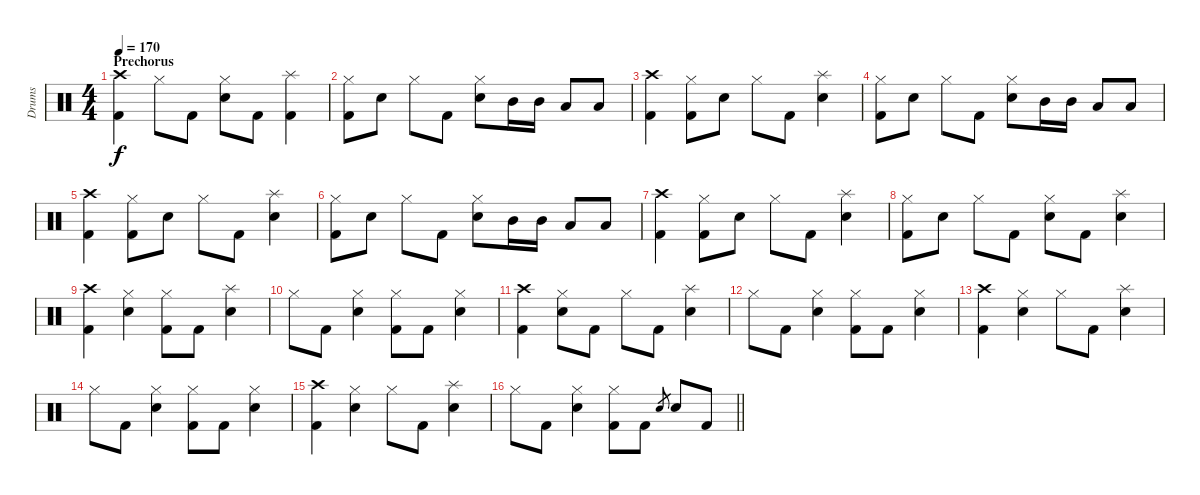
\track ("Drums" "Drums") {instrument percussion}
\staff {score}
\articulation defaults
\ts (4 4)
\section ("" "Prechorus")
\tempo 170
\clef neutral
\ks c
("Kick (hit) 2" "Crash high (hit)").4{dy f} "Hi-Hat (closed)".8 "Kick (hit) 2".8 ("Hi-Hat (closed)" "Electric Snare (hit)").8 "Kick (hit) 2".8 ("Kick (hit) 2" "Splash (hit)").4 |
("Kick (hit) 2" "Hi-Hat (closed)").8 "Electric Snare (hit)".8 "Hi-Hat (closed)".8 "Kick (hit) 2".8 ("Hi-Hat (closed)" "Electric Snare (hit)").8 "Mid Tom (hit)".16 "Mid Tom (hit)".16 "Low Tom (hit)".8 "Low Tom (hit)".8 |
("Kick (hit) 2" "Crash high (hit)").4 ("Kick (hit) 2" "Hi-Hat (closed)").8 "Electric Snare (hit)".8 "Hi-Hat (closed)".8 "Kick (hit) 2".8 ("Splash (hit)" "Electric Snare (hit)").4 |
("Kick (hit) 2" "Hi-Hat (closed)").8 "Electric Snare (hit)".8 "Hi-Hat (closed)".8 "Kick (hit) 2".8 ("Hi-Hat (closed)" "Electric Snare (hit)").8 "Mid Tom (hit)".16 "Mid Tom (hit)".16 "Low Tom (hit)".8 "Low Tom (hit)".8 |
("Kick (hit) 2" "Crash high (hit)").4 ("Kick (hit) 2" "Hi-Hat (closed)").8 "Electric Snare (hit)".8 "Hi-Hat (closed)".8 "Kick (hit) 2".8 ("Splash (hit)" "Electric Snare (hit)").4 |
("Kick (hit) 2" "Hi-Hat (closed)").8 "Electric Snare (hit)".8 "Hi-Hat (closed)".8 "Kick (hit) 2".8 ("Hi-Hat (closed)" "Electric Snare (hit)").8 "Mid Tom (hit)".16 "Mid Tom (hit)".16 "Low Tom (hit)".8 "Low Tom (hit)".8 |
("Kick (hit) 2" "Crash high (hit)").4 ("Kick (hit) 2" "Hi-Hat (closed)").8 "Electric Snare (hit)".8 "Hi-Hat (closed)".8 "Kick (hit) 2".8 ("Splash (hit)" "Electric Snare (hit)").4 |
("Kick (hit) 2" "Hi-Hat (closed)").8 "Electric Snare (hit)".8 "Hi-Hat (closed)".8 "Kick (hit) 2".8 ("Hi-Hat (closed)" "Electric Snare (hit)").8 "Kick (hit) 2".8 ("Splash (hit)" "Electric Snare (hit)").4 |
("Kick (hit) 2" "Crash high (hit)").4 ("Hi-Hat (closed)" "Electric Snare (hit)").4 ("Kick (hit) 2" "Hi-Hat (closed)").8 "Kick (hit) 2".8 ("Splash (hit)" "Electric Snare (hit)").4 |
"Hi-Hat (closed)".8 "Kick (hit) 2".8 ("Hi-Hat (closed)" "Electric Snare (hit)").4 ("Kick (hit) 2" "Hi-Hat (closed)").8 "Kick (hit) 2".8 ("Hi-Hat (closed)" "Electric Snare (hit)").4 |
("Kick (hit) 2" "Crash high (hit)").4 ("Hi-Hat (closed)" "Electric Snare (hit)").8 "Kick (hit) 2".8 "Hi-Hat (closed)".8 "Kick (hit) 2".8 ("Splash (hit)" "Electric Snare (hit)").4 |
"Hi-Hat (closed)".8 "Kick (hit) 2".8 ("Hi-Hat (closed)" "Electric Snare (hit)").4 ("Kick (hit) 2" "Hi-Hat (closed)").8 "Kick (hit) 2".8 ("Hi-Hat (closed)" "Electric Snare (hit)").4 |
("Kick (hit) 2" "Crash high (hit)").4 ("Hi-Hat (closed)" "Electric Snare (hit)").4 "Hi-Hat (closed)".8 "Kick (hit) 2".8 ("Splash (hit)" "Electric Snare (hit)").4 |
"Hi-Hat (closed)".8 "Kick (hit) 2".8 ("Hi-Hat (closed)" "Electric Snare (hit)").4 ("Kick (hit) 2" "Hi-Hat (closed)").8 "Kick (hit) 2".8 ("Hi-Hat (closed)" "Electric Snare (hit)").4 |
("Kick (hit) 2" "Crash high (hit)").4 ("Hi-Hat (closed)" "Electric Snare (hit)").4 "Hi-Hat (closed)".8 "Kick (hit) 2".8 ("Splash (hit)" "Electric Snare (hit)").4 |
\barLineRight lightlight "Hi-Hat (closed)".8 "Kick (hit) 2".8
("Hi-Hat (closed)" "Electric Snare (hit)").4 ("Kick (hit) 2" "Hi-Hat (closed)").8 "Kick (hit) 2".8 "Electric Snare (hit)".8{gr} "Electric Snare (hit)".8 "Kick (hit) 2".8
